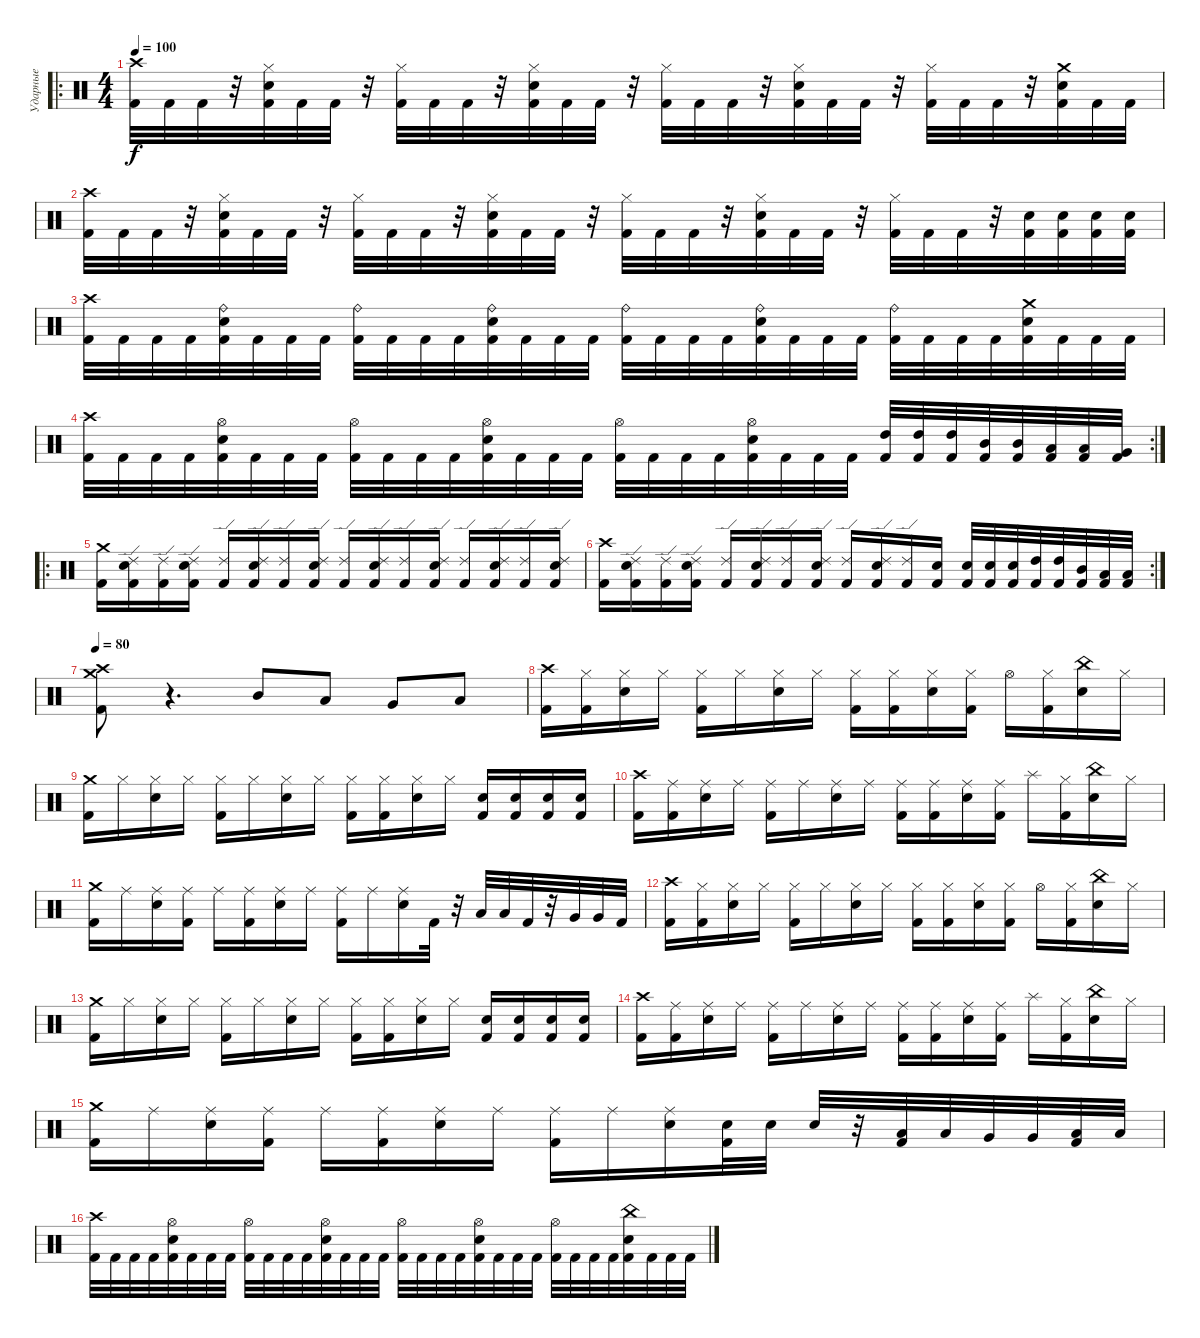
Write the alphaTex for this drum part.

\track ("Ударные" "Ударные") {instrument percussion}
\staff {score}
\articulation defaults
\ro
\ts (4 4)
\tempo 100
\clef neutral
\ks c
("Crash high (hit)" "Kick (hit) 2").32{dy f} "Kick (hit) 2".32 "Kick (hit) 2".32 r.32 ("Hi-Hat (closed)" "Snare (hit) 2" "Kick (hit) 2").32 "Kick (hit) 2".32 "Kick (hit) 2".32 r.32 ("Hi-Hat (closed)" "Kick (hit) 2").32 "Kick (hit) 2".32 "Kick (hit) 2".32 r.32 ("Hi-Hat (closed)" "Snare (hit) 2" "Kick (hit) 2").32 "Kick (hit) 2".32 "Kick (hit) 2".32 r.32 ("Hi-Hat (closed)" "Kick (hit) 2").32 "Kick (hit) 2".32 "Kick (hit) 2".32 r.32 ("Hi-Hat (closed)" "Snare (hit) 2" "Kick (hit) 2").32 "Kick (hit) 2".32 "Kick (hit) 2".32 r.32 ("Hi-Hat (closed)" "Kick (hit) 2").32 "Kick (hit) 2".32 "Kick (hit) 2".32 r.32 ("Crash medium (hit)" "Snare (hit) 2" "Kick (hit) 2").32 "Kick (hit) 2".32 "Kick (hit) 2".32 |
("Crash high (hit)" "Kick (hit) 2").32 "Kick (hit) 2".32 "Kick (hit) 2".32 r.32 ("Hi-Hat (closed)" "Snare (hit) 2" "Kick (hit) 2").32 "Kick (hit) 2".32 "Kick (hit) 2".32 r.32 ("Hi-Hat (closed)" "Kick (hit) 2").32 "Kick (hit) 2".32 "Kick (hit) 2".32 r.32 ("Hi-Hat (closed)" "Snare (hit) 2" "Kick (hit) 2").32 "Kick (hit) 2".32 "Kick (hit) 2".32 r.32 ("Hi-Hat (closed)" "Kick (hit) 2").32 "Kick (hit) 2".32 "Kick (hit) 2".32 r.32 ("Hi-Hat (closed)" "Snare (hit) 2" "Kick (hit) 2").32 "Kick (hit) 2".32 "Kick (hit) 2".32 r.32 ("Hi-Hat (closed)" "Kick (hit) 2").32 "Kick (hit) 2".32 "Kick (hit) 2".32 r.32 ("Snare (hit) 2" "Kick (hit) 2").32 ("Snare (hit) 2" "Kick (hit) 2").32 ("Snare (hit) 2" "Kick (hit) 2").32 ("Snare (hit) 2" "Kick (hit) 2").32 |
("Crash high (hit)" "Kick (hit) 2").32 "Kick (hit) 2".32 "Kick (hit) 2".32 "Kick (hit) 2".32 ("Ride (bell)" "Snare (hit) 2" "Kick (hit) 2").32 "Kick (hit) 2".32 "Kick (hit) 2".32 "Kick (hit) 2".32 ("Ride (bell)" "Kick (hit) 2").32 "Kick (hit) 2".32 "Kick (hit) 2".32 "Kick (hit) 2".32 ("Ride (bell)" "Snare (hit) 2" "Kick (hit) 2").32 "Kick (hit) 2".32 "Kick (hit) 2".32 "Kick (hit) 2".32 ("Ride (bell)" "Kick (hit) 2").32 "Kick (hit) 2".32 "Kick (hit) 2".32 "Kick (hit) 2".32 ("Ride (bell)" "Snare (hit) 2" "Kick (hit) 2").32 "Kick (hit) 2".32 "Kick (hit) 2".32 "Kick (hit) 2".32 ("Ride (bell)" "Kick (hit) 2").32 "Kick (hit) 2".32 "Kick (hit) 2".32 "Kick (hit) 2".32 ("Crash medium (hit)" "Snare (hit) 2" "Kick (hit) 2").32 "Kick (hit) 2".32 "Kick (hit) 2".32 "Kick (hit) 2".32 |
\rc 2
("Crash high (hit)" "Kick (hit) 2").32 "Kick (hit) 2".32 "Kick (hit) 2".32 "Kick (hit) 2".32 ("Hi-Hat (open)" "Snare (hit) 2" "Kick (hit) 2").32 "Kick (hit) 2".32 "Kick (hit) 2".32 "Kick (hit) 2".32 ("Hi-Hat (open)" "Kick (hit) 2").32 "Kick (hit) 2".32 "Kick (hit) 2".32 "Kick (hit) 2".32 ("Hi-Hat (open)" "Snare (hit) 2" "Kick (hit) 2").32 "Kick (hit) 2".32 "Kick (hit) 2".32 "Kick (hit) 2".32 ("Hi-Hat (open)" "Kick (hit) 2").32 "Kick (hit) 2".32 "Kick (hit) 2".32 "Kick (hit) 2".32 ("Hi-Hat (open)" "Snare (hit) 2" "Kick (hit) 2").32 "Kick (hit) 2".32 "Kick (hit) 2".32 "Kick (hit) 2".32 ("High Tom (hit)" "Kick (hit) 2").32 ("High Tom (hit)" "Kick (hit) 2").32 ("High Tom (hit)" "Kick (hit) 2").32 ("Mid Tom (hit)" "Kick (hit) 2").32 ("Mid Tom (hit)" "Kick (hit) 2").32 ("Low Tom (hit)" "Kick (hit) 2").32 ("Low Tom (hit)" "Kick (hit) 2").32 ("Very Low Tom (hit)" "Kick (hit) 2").32 |
\ro
("Crash medium (hit)" "Kick (hit) 2").16 ("Ride (edge) 2" "Snare (hit) 2" "Kick (hit) 2").16 ("Ride (edge) 2" "Kick (hit) 2").16 ("Ride (edge) 2" "Snare (hit) 2" "Kick (hit) 2").16 ("Ride (edge) 2" "Kick (hit) 2").16 ("Ride (edge) 2" "Snare (hit) 2" "Kick (hit) 2").16 ("Ride (edge) 2" "Kick (hit) 2").16 ("Ride (edge) 2" "Snare (hit) 2" "Kick (hit) 2").16 ("Ride (edge) 2" "Kick (hit) 2").16 ("Ride (edge) 2" "Snare (hit) 2" "Kick (hit) 2").16 ("Ride (edge) 2" "Kick (hit) 2").16 ("Ride (edge) 2" "Snare (hit) 2" "Kick (hit) 2").16 ("Ride (edge) 2" "Kick (hit) 2").16 ("Ride (edge) 2" "Snare (hit) 2" "Kick (hit) 2").16 ("Ride (edge) 2" "Kick (hit) 2").16 ("Ride (edge) 2" "Snare (hit) 2" "Kick (hit) 2").16 |
\rc 2
("Crash high (hit)" "Kick (hit) 2").16 ("Ride (edge) 2" "Snare (hit) 2" "Kick (hit) 2").16 ("Ride (edge) 2" "Kick (hit) 2").16 ("Ride (edge) 2" "Snare (hit) 2" "Kick (hit) 2").16 ("Ride (edge) 2" "Kick (hit) 2").16 ("Ride (edge) 2" "Snare (hit) 2" "Kick (hit) 2").16 ("Ride (edge) 2" "Kick (hit) 2").16 ("Ride (edge) 2" "Snare (hit) 2" "Kick (hit) 2").16 ("Ride (edge) 2" "Kick (hit) 2").16 ("Ride (edge) 2" "Snare (hit) 2" "Kick (hit) 2").16 ("Ride (edge) 2" "Kick (hit) 2").16 ("Snare (hit) 2" "Kick (hit) 2").16 ("Snare (hit) 2" "Kick (hit) 2").32 ("Snare (hit) 2" "Kick (hit) 2").32 ("Snare (hit) 2" "Kick (hit) 2").32 ("High Tom (hit)" "Kick (hit) 2").32 ("High Tom (hit)" "Kick (hit) 2").32 ("Mid Tom (hit)" "Kick (hit) 2").32 ("Low Tom (hit)" "Kick (hit) 2").32 ("Low Tom (hit)" "Kick (hit) 2").32 |
\tempo 80
("Crash medium (hit)" "Crash high (hit)" "Kick (hit) 2").8 r.4{d} "Mid Tom (hit)".8 "Low Tom (hit)".8 "Very Low Tom (hit)".8 "Low Floor Tom (hit)".8 |
("Crash high (hit)" "Kick (hit) 2").16 ("Hi-Hat (closed)" "Kick (hit) 2").16 ("Hi-Hat (closed)" "Snare (hit) 2").16 "Hi-Hat (closed)".16 ("Hi-Hat (closed)" "Kick (hit) 2").16 "Hi-Hat (closed)".16 ("Hi-Hat (closed)" "Snare (hit) 2").16 "Hi-Hat (closed)".16 ("Hi-Hat (closed)" "Kick (hit) 2").16 ("Hi-Hat (closed)" "Kick (hit) 2").16 ("Hi-Hat (closed)" "Snare (hit) 2").16 ("Hi-Hat (closed)" "Kick (hit) 2").16 "Hi-Hat (open)".16 ("Hi-Hat (closed)" "Kick (hit) 2").16 ("China (hit)" "Snare (hit) 2").16 "Hi-Hat (closed)".16 |
("Crash medium (hit)" "Kick (hit) 2").16 "Hi-Hat (closed)".16 ("Hi-Hat (closed)" "Snare (hit) 2").16 "Hi-Hat (closed)".16 ("Hi-Hat (closed)" "Kick (hit) 2").16 "Hi-Hat (closed)".16 ("Hi-Hat (closed)" "Snare (hit) 2").16 "Hi-Hat (closed)".16 ("Hi-Hat (closed)" "Kick (hit) 2").16 ("Hi-Hat (closed)" "Kick (hit) 2").16 ("Hi-Hat (closed)" "Snare (hit) 2").16 "Hi-Hat (closed)".16 ("Snare (hit) 2" "Kick (hit) 2").16 ("Snare (hit) 2" "Kick (hit) 2").16 ("Snare (hit) 2" "Kick (hit) 2").16 ("Snare (hit) 2" "Kick (hit) 2").16 |
("Crash high (hit)" "Kick (hit) 2").16 ("Ride (middle)" "Kick (hit) 2").16 ("Ride (middle)" "Snare (hit) 2").16 "Ride (middle)".16 ("Ride (middle)" "Kick (hit) 2").16 "Ride (middle)".16 ("Ride (middle)" "Snare (hit) 2").16 "Ride (middle)".16 ("Ride (middle)" "Kick (hit) 2").16 ("Ride (middle)" "Kick (hit) 2").16 ("Ride (middle)" "Snare (hit) 2").16 ("Ride (middle)" "Kick (hit) 2").16 "Splash (hit)".16 ("Hi-Hat (closed)" "Kick (hit) 2").16 ("China (hit)" "Snare (hit) 2").16 "Hi-Hat (closed)".16 |
("Crash medium (hit)" "Kick (hit) 2").16 "Ride (middle)".16 ("Ride (middle)" "Snare (hit) 2").16 ("Ride (middle)" "Kick (hit) 2").16 "Ride (middle)".16 ("Ride (middle)" "Kick (hit) 2").16 ("Ride (middle)" "Snare (hit) 2").16 "Ride (middle)".16 ("Ride (middle)" "Kick (hit) 2").16 "Ride (middle)".16 ("Ride (middle)" "Snare (hit) 2").16 "Kick (hit) 2".32 r.32 "Low Tom (hit)".32 "Low Tom (hit)".32 "Kick (hit) 2".32 r.32 "Very Low Tom (hit)".32 "Very Low Tom (hit)".32 "Kick (hit) 2".32 |
("Crash high (hit)" "Kick (hit) 2").16 ("Hi-Hat (closed)" "Kick (hit) 2").16 ("Hi-Hat (closed)" "Snare (hit) 2").16 "Hi-Hat (closed)".16 ("Hi-Hat (closed)" "Kick (hit) 2").16 "Hi-Hat (closed)".16 ("Hi-Hat (closed)" "Snare (hit) 2").16 "Hi-Hat (closed)".16 ("Hi-Hat (closed)" "Kick (hit) 2").16 ("Hi-Hat (closed)" "Kick (hit) 2").16 ("Hi-Hat (closed)" "Snare (hit) 2").16 ("Hi-Hat (closed)" "Kick (hit) 2").16 "Hi-Hat (open)".16 ("Hi-Hat (closed)" "Kick (hit) 2").16 ("China (hit)" "Snare (hit) 2").16 "Hi-Hat (closed)".16 |
("Crash medium (hit)" "Kick (hit) 2").16 "Hi-Hat (closed)".16 ("Hi-Hat (closed)" "Snare (hit) 2").16 "Hi-Hat (closed)".16 ("Hi-Hat (closed)" "Kick (hit) 2").16 "Hi-Hat (closed)".16 ("Hi-Hat (closed)" "Snare (hit) 2").16 "Hi-Hat (closed)".16 ("Hi-Hat (closed)" "Kick (hit) 2").16 ("Hi-Hat (closed)" "Kick (hit) 2").16 ("Hi-Hat (closed)" "Snare (hit) 2").16 "Hi-Hat (closed)".16 ("Snare (hit) 2" "Kick (hit) 2").16 ("Snare (hit) 2" "Kick (hit) 2").16 ("Snare (hit) 2" "Kick (hit) 2").16 ("Snare (hit) 2" "Kick (hit) 2").16 |
("Crash high (hit)" "Kick (hit) 2").16 ("Ride (middle)" "Kick (hit) 2").16 ("Ride (middle)" "Snare (hit) 2").16 "Ride (middle)".16 ("Ride (middle)" "Kick (hit) 2").16 "Ride (middle)".16 ("Ride (middle)" "Snare (hit) 2").16 "Ride (middle)".16 ("Ride (middle)" "Kick (hit) 2").16 ("Ride (middle)" "Kick (hit) 2").16 ("Ride (middle)" "Snare (hit) 2").16 ("Ride (middle)" "Kick (hit) 2").16 "Splash (hit)".16 ("Hi-Hat (closed)" "Kick (hit) 2").16 ("China (hit)" "Snare (hit) 2").16 "Hi-Hat (closed)".16 |
("Crash medium (hit)" "Kick (hit) 2").16 "Ride (middle)".16 ("Ride (middle)" "Snare (hit) 2").16 ("Ride (middle)" "Kick (hit) 2").16 "Ride (middle)".16 ("Ride (middle)" "Kick (hit) 2").16 ("Ride (middle)" "Snare (hit) 2").16 "Ride (middle)".16 ("Ride (middle)" "Kick (hit) 2").16 "Ride (middle)".16 ("Ride (middle)" "Snare (hit) 2").16 ("Snare (hit) 2" "Kick (hit) 2").32 "Snare (hit) 2".32 "Snare (hit) 2".32 r.32 ("Low Tom (hit)" "Kick (hit) 2").32 "Low Tom (hit)".32 "Very Low Tom (hit)".32 "Very Low Tom (hit)".32 ("Low Floor Tom (hit)" "Kick (hit) 2").32 "Low Floor Tom (hit)".32 |
("Crash high (hit)" "Kick (hit) 2").32 "Kick (hit) 2".32 "Kick (hit) 2".32 "Kick (hit) 2".32 ("Hi-Hat (open)" "Snare (hit) 2" "Kick (hit) 2").32 "Kick (hit) 2".32 "Kick (hit) 2".32 "Kick (hit) 2".32 ("Hi-Hat (open)" "Kick (hit) 2").32 "Kick (hit) 2".32 "Kick (hit) 2".32 "Kick (hit) 2".32 ("Hi-Hat (open)" "Snare (hit) 2" "Kick (hit) 2").32 "Kick (hit) 2".32 "Kick (hit) 2".32 "Kick (hit) 2".32 ("Hi-Hat (open)" "Kick (hit) 2").32 "Kick (hit) 2".32 "Kick (hit) 2".32 "Kick (hit) 2".32 ("Hi-Hat (open)" "Snare (hit) 2" "Kick (hit) 2").32 "Kick (hit) 2".32 "Kick (hit) 2".32 "Kick (hit) 2".32 ("Hi-Hat (open)" "Kick (hit) 2").32 "Kick (hit) 2".32 "Kick (hit) 2".32 "Kick (hit) 2".32 ("China (hit)" "Snare (hit) 2" "Kick (hit) 2").32 "Kick (hit) 2".32 "Kick (hit) 2".32 "Kick (hit) 2".32
